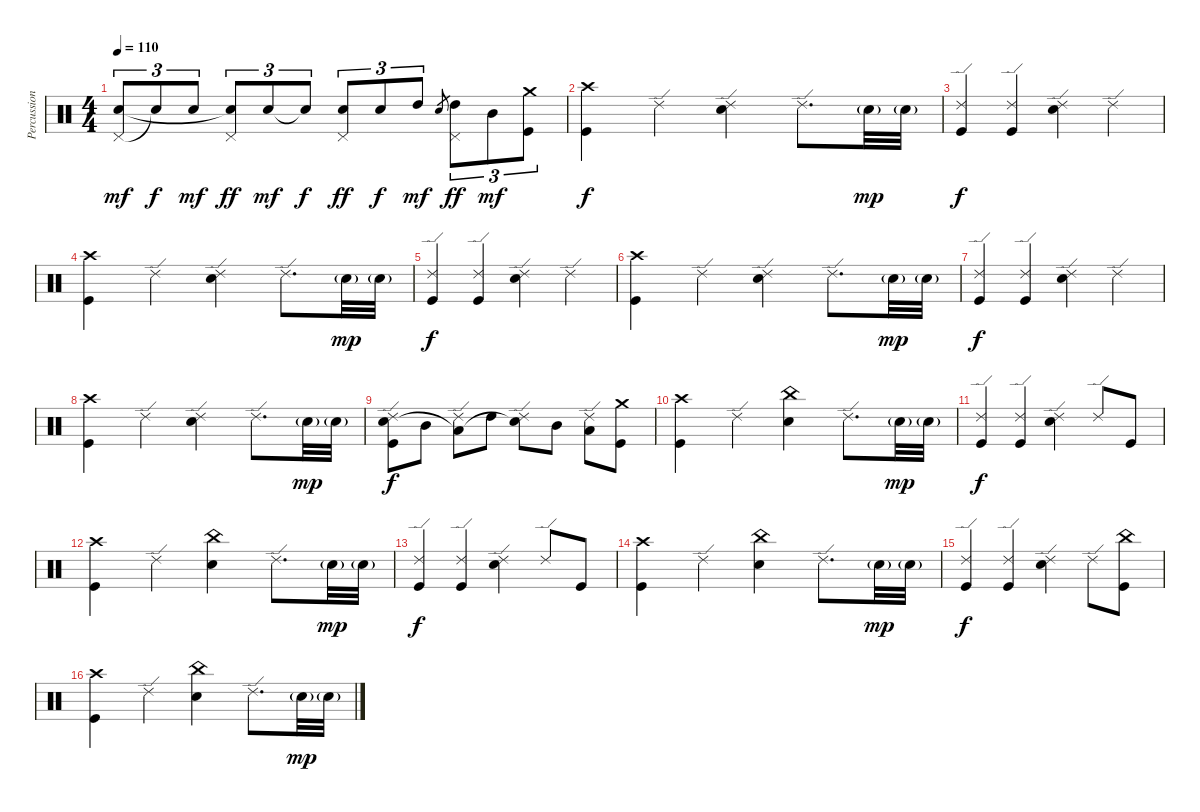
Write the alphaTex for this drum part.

\track ("Percussioni" "Percussion") {instrument percussion}
\staff {score}
\articulation defaults
\ts (4 4)
\tempo 110
\clef neutral
\ks c
("Pedal Hi-Hat (hit)" "Electric Snare (hit)").8{tu (3 2) dy mf} "Electric Snare (hit)"{t}.8{tu (3 2) dy f} "Electric Snare (hit)".8{tu (3 2) dy mf} ("Pedal Hi-Hat (hit)" "Electric Snare (hit)"{t}).8{tu (3 2) dy ff} "Electric Snare (hit)".8{tu (3 2) dy mf} "Electric Snare (hit)"{t}.8{tu (3 2) dy f} ("Pedal Hi-Hat (hit)" "Electric Snare (hit)").8{tu (3 2) dy ff} "Electric Snare (hit)".8{tu (3 2) dy f} "High Tom (hit)".8{tu (3 2) dy mf} "Electric Snare (hit)".8{gr} ("Pedal Hi-Hat (hit)" "High Tom (hit)").8{tu (3 2) dy ff} "Mid Tom (hit)".8{tu (3 2) dy mf} ("Crash medium (hit)" "Kick (hit)").8{tu (3 2)} |
("Crash high (hit)" "Kick (hit)").4{dy f} "Ride (edge) 2".4 ("Ride (edge) 2" "Electric Snare (hit)").4 "Ride (edge) 2".8{d} "Electric Snare (hit)"{g}.32{dy mp} "Electric Snare (hit)"{g}.32 |
("Ride (edge) 2" "Kick (hit)").4{dy f} ("Ride (edge) 2" "Kick (hit)").4 ("Ride (edge) 2" "Electric Snare (hit)").4 "Ride (edge) 2".4 |
("Crash high (hit)" "Kick (hit)").4 "Ride (edge) 2".4 ("Ride (edge) 2" "Electric Snare (hit)").4 "Ride (edge) 2".8{d} "Electric Snare (hit)"{g}.32{dy mp} "Electric Snare (hit)"{g}.32 |
("Ride (edge) 2" "Kick (hit)").4{dy f} ("Ride (edge) 2" "Kick (hit)").4 ("Ride (edge) 2" "Electric Snare (hit)").4 "Ride (edge) 2".4 |
("Crash high (hit)" "Kick (hit)").4 "Ride (edge) 2".4 ("Ride (edge) 2" "Electric Snare (hit)").4 "Ride (edge) 2".8{d} "Electric Snare (hit)"{g}.32{dy mp} "Electric Snare (hit)"{g}.32 |
("Ride (edge) 2" "Kick (hit)").4{dy f} ("Ride (edge) 2" "Kick (hit)").4 ("Ride (edge) 2" "Electric Snare (hit)").4 "Ride (edge) 2".4 |
("Crash high (hit)" "Kick (hit)").4 "Ride (edge) 2".4 ("Ride (edge) 2" "Electric Snare (hit)").4 "Ride (edge) 2".8{d} "Electric Snare (hit)"{g}.32{dy mp} "Electric Snare (hit)"{g}.32 |
("Ride (edge) 2" "Electric Snare (hit)" "Kick (hit)").8{dy f} "Mid Tom (hit)".8 ("Ride (edge) 2" "Low Tom (hit)"{t}).8 "High Tom (hit)".8 ("Ride (edge) 2" "Snare (hit)"{t}).8 "Mid Tom (hit)".8 ("Ride (edge) 2" "Low Tom (hit)").8 ("Crash medium (hit)" "Kick (hit)").8 |
("Crash high (hit)" "Kick (hit)").4 "Ride (edge) 2".4 ("China (hit)" "Electric Snare (hit)").4 "Ride (edge) 2".8{d} "Electric Snare (hit)"{g}.32{dy mp} "Electric Snare (hit)"{g}.32 |
("Ride (edge) 2" "Kick (hit)").4{dy f} ("Ride (edge) 2" "Kick (hit)").4 ("Ride (edge) 2" "Electric Snare (hit)").4 "Ride (edge) 2".8 "Kick (hit)".8 |
("Crash high (hit)" "Kick (hit)").4 "Ride (edge) 2".4 ("China (hit)" "Electric Snare (hit)").4 "Ride (edge) 2".8{d} "Electric Snare (hit)"{g}.32{dy mp} "Electric Snare (hit)"{g}.32 |
("Ride (edge) 2" "Kick (hit)").4{dy f} ("Ride (edge) 2" "Kick (hit)").4 ("Ride (edge) 2" "Electric Snare (hit)").4 "Ride (edge) 2".8 "Kick (hit)".8 |
("Crash high (hit)" "Kick (hit)").4 "Ride (edge) 2".4 ("China (hit)" "Electric Snare (hit)").4 "Ride (edge) 2".8{d} "Electric Snare (hit)"{g}.32{dy mp} "Electric Snare (hit)"{g}.32 |
("Ride (edge) 2" "Kick (hit)").4{dy f} ("Ride (edge) 2" "Kick (hit)").4 ("Ride (edge) 2" "Electric Snare (hit)").4 "Ride (edge) 2".8 ("China (hit)" "Kick (hit)").8 |
("Crash high (hit)" "Kick (hit)").4 "Ride (edge) 2".4 ("China (hit)" "Electric Snare (hit)").4 "Ride (edge) 2".8{d} "Electric Snare (hit)"{g}.32{dy mp} "Electric Snare (hit)"{g}.32
